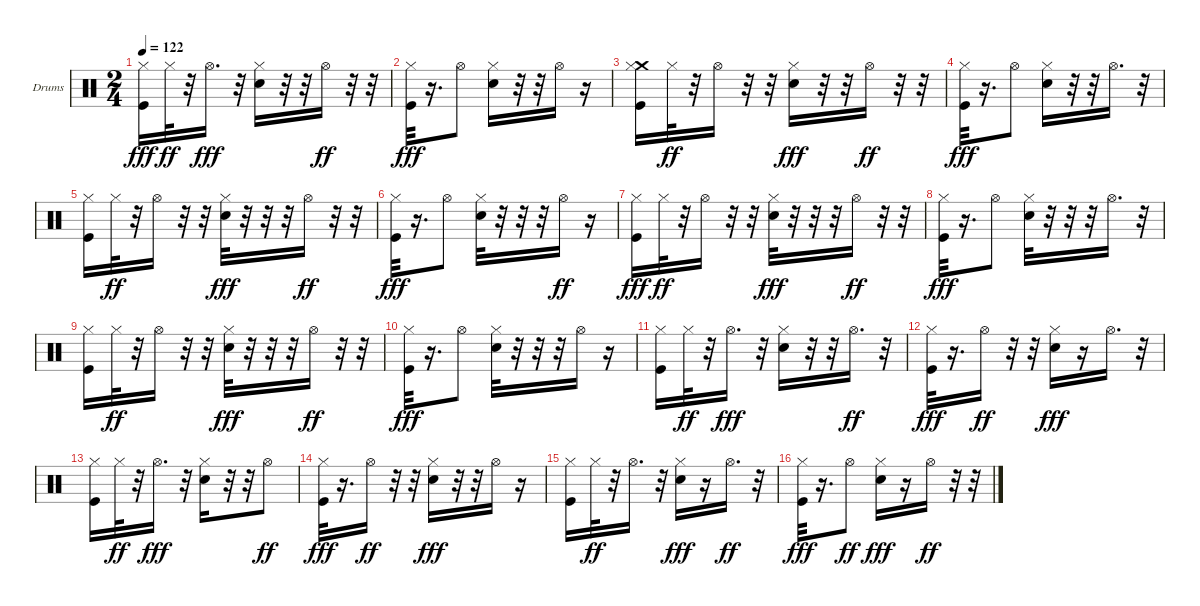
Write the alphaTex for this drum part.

\bracketExtendMode groupsimilarinstruments
\firstSystemTrackNameOrientation horizontal
\otherSystemsTrackNameOrientation horizontal
\track ("Ударные" "Drums") {instrument percussion}
\staff {score}
\articulation defaults
\ts (2 4)
\tempo 122
\clef neutral
\ks c
("Kick (hit)" "Hi-Hat (closed)").16{dy fff} "Hi-Hat (closed)".32{dy ff} r.32 "Hi-Hat (open)".16{d dy fff} r.32 ("Snare (hit) 2" "Hi-Hat (closed)").16 r.32 r.32 "Hi-Hat (open)".16{dy ff} r.32 r.32 |
("Kick (hit)" "Hi-Hat (closed)").32{dy fff} r.16{d} "Hi-Hat (open)".8 ("Snare (hit) 2" "Hi-Hat (closed)").16 r.32 r.32 "Hi-Hat (open)".16 r.16 |
("Kick (hit)" "Crash medium (hit)" "Hi-Hat (closed)").16 "Hi-Hat (closed)".32{dy ff} r.32 "Hi-Hat (open)".16 r.32 r.32 ("Snare (hit) 2" "Hi-Hat (closed)").16{dy fff} r.32 r.32 "Hi-Hat (open)".16{dy ff} r.32 r.32 |
("Kick (hit)" "Hi-Hat (closed)").32{dy fff} r.16{d} "Hi-Hat (open)".8 ("Snare (hit) 2" "Hi-Hat (closed)").16 r.32 r.32 "Hi-Hat (open)".16{d} r.32 |
("Kick (hit)" "Hi-Hat (closed)").16 "Hi-Hat (closed)".32{dy ff} r.32 "Hi-Hat (open)".16 r.32 r.32 ("Snare (hit) 2" "Hi-Hat (closed)").32{dy fff} r.32 r.32 r.32 "Hi-Hat (open)".16{dy ff} r.32 r.32 |
("Kick (hit)" "Hi-Hat (closed)").32{dy fff} r.16{d} "Hi-Hat (open)".8 ("Snare (hit) 2" "Hi-Hat (closed)").32 r.32 r.32 r.32 "Hi-Hat (open)".16{dy ff} r.16 |
("Kick (hit)" "Hi-Hat (closed)").16{dy fff} "Hi-Hat (closed)".32{dy ff} r.32 "Hi-Hat (open)".16 r.32 r.32 ("Snare (hit) 2" "Hi-Hat (closed)").32{dy fff} r.32 r.32 r.32 "Hi-Hat (open)".16{dy ff} r.32 r.32 |
("Kick (hit)" "Hi-Hat (closed)").32{dy fff} r.16{d} "Hi-Hat (open)".8 ("Snare (hit) 2" "Hi-Hat (closed)").32 r.32 r.32 r.32 "Hi-Hat (open)".16{d} r.32 |
("Kick (hit)" "Hi-Hat (closed)").16 "Hi-Hat (closed)".32{dy ff} r.32 "Hi-Hat (open)".16 r.32 r.32 ("Snare (hit) 2" "Hi-Hat (closed)").32{dy fff} r.32 r.32 r.32 "Hi-Hat (open)".16{dy ff} r.32 r.32 |
("Kick (hit)" "Hi-Hat (closed)").32{dy fff} r.16{d} "Hi-Hat (open)".8 ("Snare (hit) 2" "Hi-Hat (closed)").32 r.32 r.32 r.32 "Hi-Hat (open)".16 r.16 |
("Kick (hit)" "Hi-Hat (closed)").16 "Hi-Hat (closed)".32{dy ff} r.32 "Hi-Hat (open)".16{d dy fff} r.32 ("Snare (hit) 2" "Hi-Hat (closed)").16 r.32 r.32 "Hi-Hat (open)".16{d dy ff} r.32 |
("Kick (hit)" "Hi-Hat (closed)").32{dy fff} r.16{d} "Hi-Hat (open)".16{dy ff} r.32 r.32 ("Snare (hit) 2" "Hi-Hat (closed)").16{dy fff} r.16 "Hi-Hat (open)".16{d} r.32 |
("Kick (hit)" "Hi-Hat (closed)").16 "Hi-Hat (closed)".32{dy ff} r.32 "Hi-Hat (open)".16{d dy fff} r.32 ("Snare (hit) 2" "Hi-Hat (closed)").16 r.32 r.32 "Hi-Hat (open)".8{dy ff} |
("Kick (hit)" "Hi-Hat (closed)").32{dy fff} r.16{d} "Hi-Hat (open)".16{dy ff} r.32 r.32 ("Snare (hit) 2" "Hi-Hat (closed)").16{dy fff} r.32 r.32 "Hi-Hat (open)".16 r.16 |
("Kick (hit)" "Hi-Hat (closed)").16 "Hi-Hat (closed)".32{dy ff} r.32 "Hi-Hat (open)".16{d} r.32 ("Snare (hit) 2" "Hi-Hat (closed)").16{dy fff} r.16 "Hi-Hat (open)".16{d dy ff} r.32 |
("Kick (hit)" "Hi-Hat (closed)").32{dy fff} r.16{d} "Hi-Hat (open)".8{dy ff} ("Snare (hit) 2" "Hi-Hat (closed)").16{dy fff} r.16 "Hi-Hat (open)".16{dy ff} r.32 r.32
